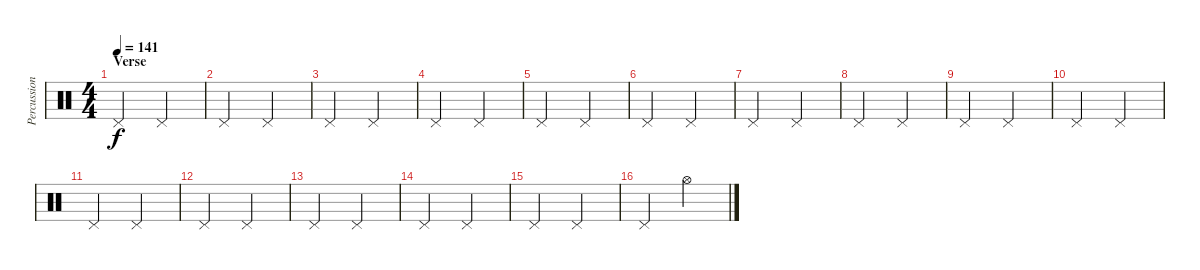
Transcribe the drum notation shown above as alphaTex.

\track ("Percussion" "Percussion") {instrument percussion}
\staff {score}
\articulation defaults
\ts (4 4)
\section ("" "Verse")
\tempo 141
\clef neutral
\ks c "Pedal Hi-Hat (hit)".2{dy f} "Pedal Hi-Hat (hit)".2
|
"Pedal Hi-Hat (hit)".2 "Pedal Hi-Hat (hit)".2 |
"Pedal Hi-Hat (hit)".2 "Pedal Hi-Hat (hit)".2 |
"Pedal Hi-Hat (hit)".2 "Pedal Hi-Hat (hit)".2 |
"Pedal Hi-Hat (hit)".2 "Pedal Hi-Hat (hit)".2 |
"Pedal Hi-Hat (hit)".2 "Pedal Hi-Hat (hit)".2 |
"Pedal Hi-Hat (hit)".2 "Pedal Hi-Hat (hit)".2 |
"Pedal Hi-Hat (hit)".2 "Pedal Hi-Hat (hit)".2 |
"Pedal Hi-Hat (hit)".2 "Pedal Hi-Hat (hit)".2 |
"Pedal Hi-Hat (hit)".2 "Pedal Hi-Hat (hit)".2 |
"Pedal Hi-Hat (hit)".2 "Pedal Hi-Hat (hit)".2 |
"Pedal Hi-Hat (hit)".2 "Pedal Hi-Hat (hit)".2 |
"Pedal Hi-Hat (hit)".2 "Pedal Hi-Hat (hit)".2 |
"Pedal Hi-Hat (hit)".2 "Pedal Hi-Hat (hit)".2 |
"Pedal Hi-Hat (hit)".2 "Pedal Hi-Hat (hit)".2 |
"Pedal Hi-Hat (hit)".2 "Hi-Hat (open)".2
